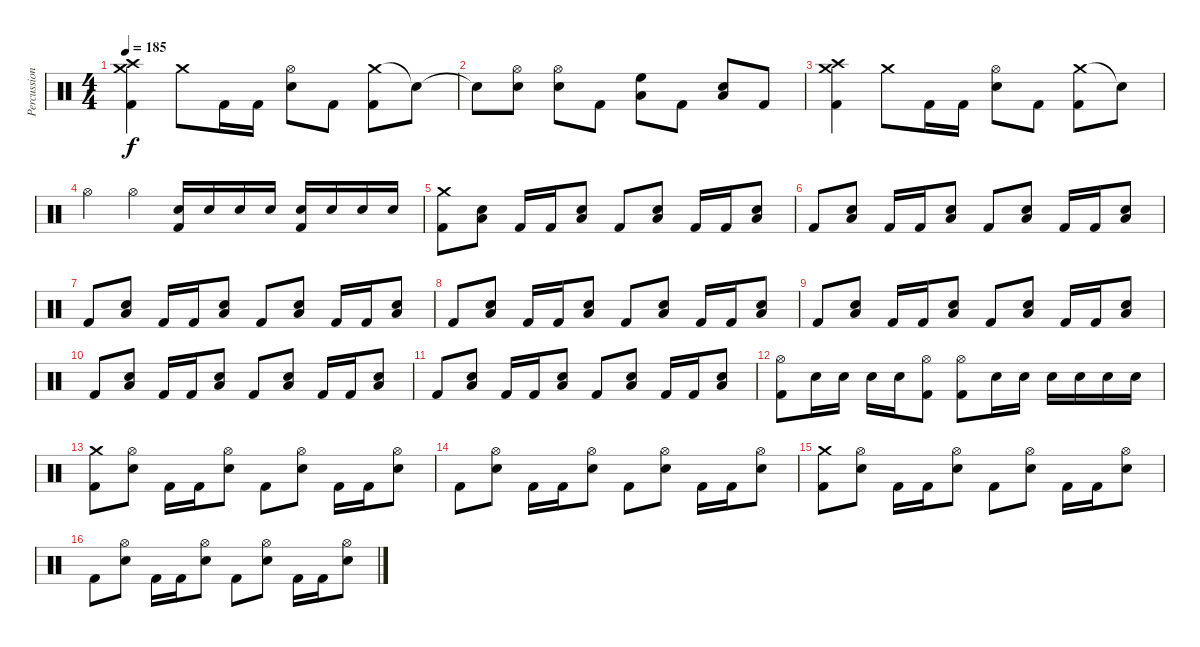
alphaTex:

\track ("Percussion" "Percussion") {instrument percussion}
\staff {score}
\articulation defaults
\ts (4 4)
\tempo 185
\clef neutral
\ks c
("Crash high (hit)" "Crash medium (hit)" "Kick (hit) 2").4{dy f} "Crash medium (hit)".8 "Kick (hit) 2".16 "Kick (hit) 2".16 ("Hi-Hat (open)" "Snare (hit) 2").8 "Kick (hit) 2".8 ("Crash medium (hit)" "Kick (hit) 2").8 "Snare (hit)"{t}.8 |
"Snare (hit)"{t}.8 ("Hi-Hat (open)" "Snare (hit) 2").8 ("Hi-Hat (open)" "Snare (hit) 2").8 "Kick (hit) 2".8 ("Low Floor Tom (hit)" "High Floor Tom (hit)").8 "Kick (hit) 2".8 ("Low Floor Tom (hit)" "Snare (hit) 2").8 "Kick (hit) 2".8 |
("Crash high (hit)" "Crash medium (hit)" "Kick (hit) 2").4 "Crash medium (hit)".8 "Kick (hit) 2".16 "Kick (hit) 2".16 ("Hi-Hat (open)" "Snare (hit) 2").8 "Kick (hit) 2".8 ("Crash medium (hit)" "Kick (hit) 2").8 "Snare (hit)"{t}.8 |
"Hi-Hat (open)".4 "Hi-Hat (open)".4 ("Snare (hit) 2" "Kick (hit) 2").16 "Snare (hit) 2".16 "Snare (hit) 2".16 "Snare (hit) 2".16 ("Snare (hit) 2" "Kick (hit) 2").16 "Snare (hit) 2".16 "Snare (hit) 2".16 "Snare (hit) 2".16 |
("Crash medium (hit)" "Kick (hit) 2").8 ("Low Floor Tom (hit)" "Snare (hit) 2").8 "Kick (hit) 2".16 "Kick (hit) 2".16 ("Low Floor Tom (hit)" "Snare (hit) 2").8 "Kick (hit) 2".8 ("Low Floor Tom (hit)" "Snare (hit) 2").8 "Kick (hit) 2".16 "Kick (hit) 2".16 ("Low Floor Tom (hit)" "Snare (hit) 2").8 |
"Kick (hit) 2".8 ("Low Floor Tom (hit)" "Snare (hit) 2").8 "Kick (hit) 2".16 "Kick (hit) 2".16 ("Low Floor Tom (hit)" "Snare (hit) 2").8 "Kick (hit) 2".8 ("Low Floor Tom (hit)" "Snare (hit) 2").8 "Kick (hit) 2".16 "Kick (hit) 2".16 ("Low Floor Tom (hit)" "Snare (hit) 2").8 |
"Kick (hit) 2".8 ("Low Floor Tom (hit)" "Snare (hit) 2").8 "Kick (hit) 2".16 "Kick (hit) 2".16 ("Low Floor Tom (hit)" "Snare (hit) 2").8 "Kick (hit) 2".8 ("Low Floor Tom (hit)" "Snare (hit) 2").8 "Kick (hit) 2".16 "Kick (hit) 2".16 ("Low Floor Tom (hit)" "Snare (hit) 2").8 |
"Kick (hit) 2".8 ("Low Floor Tom (hit)" "Snare (hit) 2").8 "Kick (hit) 2".16 "Kick (hit) 2".16 ("Low Floor Tom (hit)" "Snare (hit) 2").8 "Kick (hit) 2".8 ("Low Floor Tom (hit)" "Snare (hit) 2").8 "Kick (hit) 2".16 "Kick (hit) 2".16 ("Low Floor Tom (hit)" "Snare (hit) 2").8 |
"Kick (hit) 2".8 ("Low Floor Tom (hit)" "Snare (hit) 2").8 "Kick (hit) 2".16 "Kick (hit) 2".16 ("Low Floor Tom (hit)" "Snare (hit) 2").8 "Kick (hit) 2".8 ("Low Floor Tom (hit)" "Snare (hit) 2").8 "Kick (hit) 2".16 "Kick (hit) 2".16 ("Low Floor Tom (hit)" "Snare (hit) 2").8 |
"Kick (hit) 2".8 ("Low Floor Tom (hit)" "Snare (hit) 2").8 "Kick (hit) 2".16 "Kick (hit) 2".16 ("Low Floor Tom (hit)" "Snare (hit) 2").8 "Kick (hit) 2".8 ("Low Floor Tom (hit)" "Snare (hit) 2").8 "Kick (hit) 2".16 "Kick (hit) 2".16 ("Low Floor Tom (hit)" "Snare (hit) 2").8 |
"Kick (hit) 2".8 ("Low Floor Tom (hit)" "Snare (hit) 2").8 "Kick (hit) 2".16 "Kick (hit) 2".16 ("Low Floor Tom (hit)" "Snare (hit) 2").8 "Kick (hit) 2".8 ("Low Floor Tom (hit)" "Snare (hit) 2").8 "Kick (hit) 2".16 "Kick (hit) 2".16 ("Low Floor Tom (hit)" "Snare (hit) 2").8 |
("Hi-Hat (open)" "Kick (hit) 2").8 "Snare (hit) 2".16 "Snare (hit) 2".16 "Snare (hit) 2".16 "Snare (hit) 2".16 ("Hi-Hat (open)" "Kick (hit) 2").8 ("Hi-Hat (open)" "Kick (hit) 2").8 "Snare (hit) 2".16 "Snare (hit) 2".16 "Snare (hit) 2".16 "Snare (hit) 2".16 "Snare (hit) 2".16 "Snare (hit) 2".16 |
("Crash medium (hit)" "Kick (hit) 2").8 ("Hi-Hat (open)" "Snare (hit) 2").8 "Kick (hit) 2".16 "Kick (hit) 2".16 ("Hi-Hat (open)" "Snare (hit) 2").8 "Kick (hit) 2".8 ("Hi-Hat (open)" "Snare (hit) 2").8 "Kick (hit) 2".16 "Kick (hit) 2".16 ("Hi-Hat (open)" "Snare (hit) 2").8 |
"Kick (hit) 2".8 ("Hi-Hat (open)" "Snare (hit) 2").8 "Kick (hit) 2".16 "Kick (hit) 2".16 ("Hi-Hat (open)" "Snare (hit) 2").8 "Kick (hit) 2".8 ("Hi-Hat (open)" "Snare (hit) 2").8 "Kick (hit) 2".16 "Kick (hit) 2".16 ("Hi-Hat (open)" "Snare (hit) 2").8 |
("Crash medium (hit)" "Kick (hit) 2").8 ("Hi-Hat (open)" "Snare (hit) 2").8 "Kick (hit) 2".16 "Kick (hit) 2".16 ("Hi-Hat (open)" "Snare (hit) 2").8 "Kick (hit) 2".8 ("Hi-Hat (open)" "Snare (hit) 2").8 "Kick (hit) 2".16 "Kick (hit) 2".16 ("Hi-Hat (open)" "Snare (hit) 2").8 |
"Kick (hit) 2".8 ("Hi-Hat (open)" "Snare (hit) 2").8 "Kick (hit) 2".16 "Kick (hit) 2".16 ("Hi-Hat (open)" "Snare (hit) 2").8 "Kick (hit) 2".8 ("Hi-Hat (open)" "Snare (hit) 2").8 "Kick (hit) 2".16 "Kick (hit) 2".16 ("Hi-Hat (open)" "Snare (hit) 2").8
